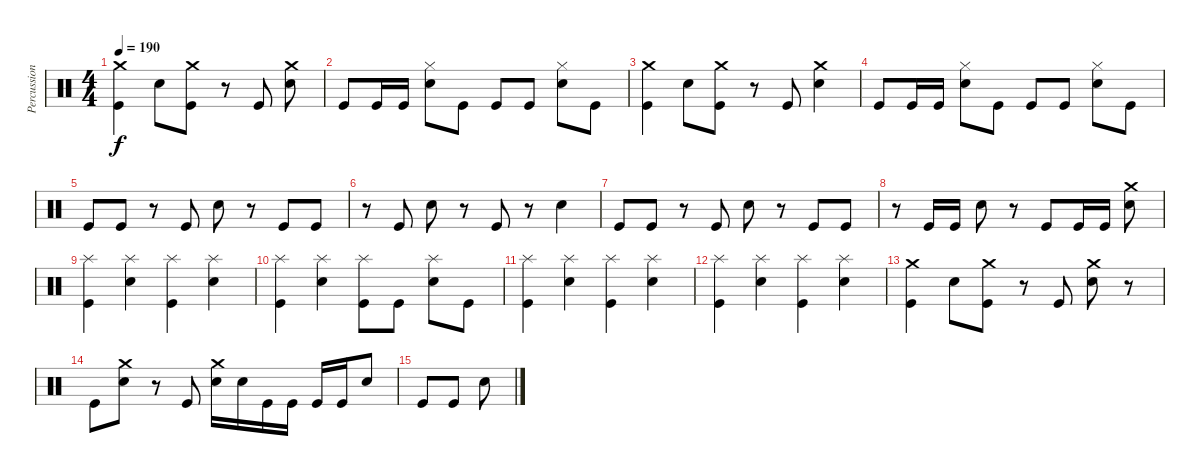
\track ("Percussion" "Percussion") {instrument percussion}
\staff {score}
\articulation defaults
\ts (4 4)
\tempo 190
\clef neutral
\ks c
("Crash medium (hit)" "Kick (hit)").4{dy f} "Electric Snare (hit)".8 ("Crash medium (hit)" "Kick (hit)").8 r.8 "Kick (hit)".8 ("Crash medium (hit)" "Electric Snare (hit)").8 |
"Kick (hit)".8 "Kick (hit)".16 "Kick (hit)".16 ("Hi-Hat (closed)" "Electric Snare (hit)").8 "Kick (hit)".8 "Kick (hit)".8 "Kick (hit)".8 ("Hi-Hat (closed)" "Electric Snare (hit)").8 "Kick (hit)".8 |
("Crash medium (hit)" "Kick (hit)").4 "Electric Snare (hit)".8 ("Crash medium (hit)" "Kick (hit)").8 r.8 "Kick (hit)".8 ("Crash medium (hit)" "Electric Snare (hit)").4 |
"Kick (hit)".8 "Kick (hit)".16 "Kick (hit)".16 ("Hi-Hat (closed)" "Electric Snare (hit)").8 "Kick (hit)".8 "Kick (hit)".8 "Kick (hit)".8 ("Hi-Hat (closed)" "Electric Snare (hit)").8 "Kick (hit)".8 |
"Kick (hit)".8 "Kick (hit)".8 r.8 "Kick (hit)".8 "Electric Snare (hit)".8 r.8 "Kick (hit)".8 "Kick (hit)".8 |
r.8 "Kick (hit)".8 "Electric Snare (hit)".8 r.8 "Kick (hit)".8 r.8 "Electric Snare (hit)".4 |
"Kick (hit)".8 "Kick (hit)".8 r.8 "Kick (hit)".8 "Electric Snare (hit)".8 r.8 "Kick (hit)".8 "Kick (hit)".8 |
r.8 "Kick (hit)".16 "Kick (hit)".16 "Electric Snare (hit)".8 r.8 "Kick (hit)".8 "Kick (hit)".16 "Kick (hit)".16 ("Crash medium (hit)" "Electric Snare (hit)").8 |
("Splash (hit)" "Kick (hit)").4 ("Splash (hit)" "Electric Snare (hit)").4 ("Splash (hit)" "Kick (hit)").4 ("Splash (hit)" "Electric Snare (hit)").4 |
("Splash (hit)" "Kick (hit)").4 ("Splash (hit)" "Electric Snare (hit)").4 ("Splash (hit)" "Kick (hit)").8 "Kick (hit)".8 ("Splash (hit)" "Electric Snare (hit)").8 "Kick (hit)".8 |
("Splash (hit)" "Kick (hit)").4 ("Splash (hit)" "Electric Snare (hit)").4 ("Splash (hit)" "Kick (hit)").4 ("Splash (hit)" "Electric Snare (hit)").4 |
("Splash (hit)" "Kick (hit)").4 ("Splash (hit)" "Electric Snare (hit)").4 ("Splash (hit)" "Kick (hit)").4 ("Splash (hit)" "Electric Snare (hit)").4 |
("Crash medium (hit)" "Kick (hit)").4 "Electric Snare (hit)".8 ("Crash medium (hit)" "Kick (hit)").8 r.8 "Kick (hit)".8 ("Crash medium (hit)" "Electric Snare (hit)").8 r.8 |
"Kick (hit)".8 ("Crash medium (hit)" "Electric Snare (hit)").8 r.8 "Kick (hit)".8 ("Crash medium (hit)" "Electric Snare (hit)").16 "Electric Snare (hit)".16 "Kick (hit)".16 "Kick (hit)".16 "Kick (hit)".16 "Kick (hit)".16 "Electric Snare (hit)".8 |
"Kick (hit)".8 "Kick (hit)".8 "Electric Snare (hit)".8
